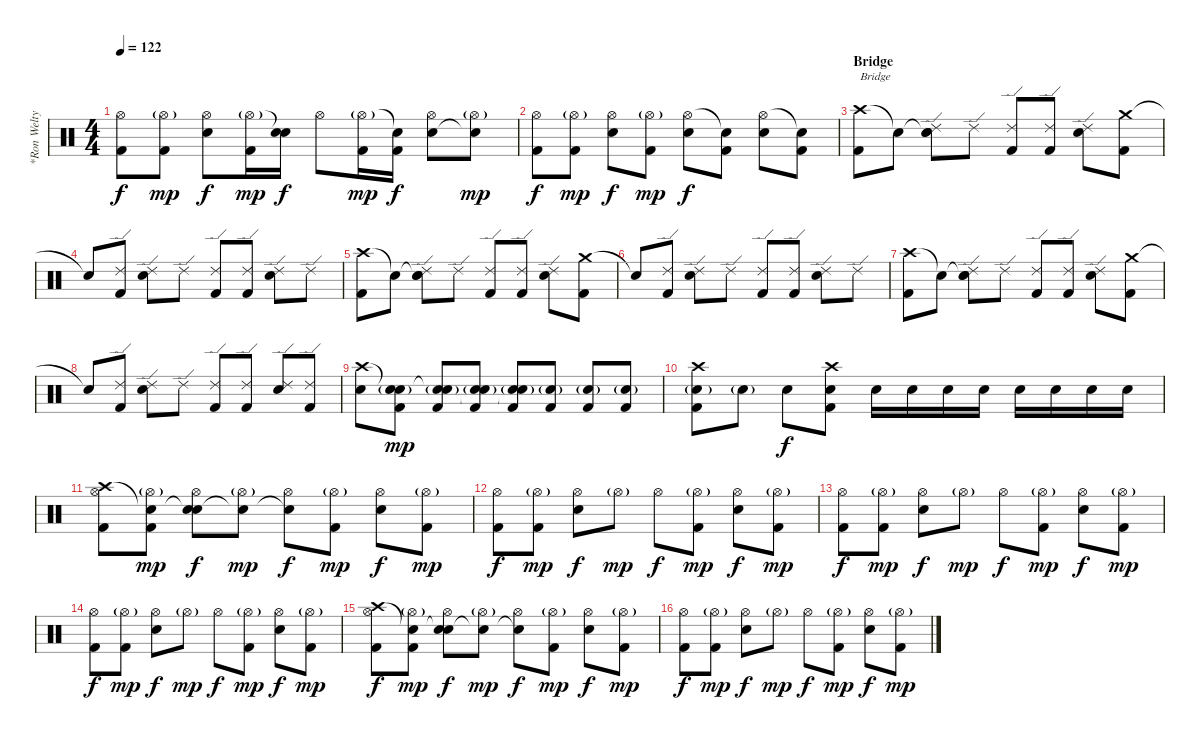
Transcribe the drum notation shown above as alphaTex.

\track ("*Ron Welty (Ex-drummer)" "*Ron Welty") {instrument percussion}
\staff {score}
\articulation defaults
\ts (4 4)
\tempo 122
\clef neutral
\ks c
("Hi-Hat (open)" "Kick (hit) 2").8{dy f volume 12} ("Hi-Hat (open)"{g} "Kick (hit) 2").8{dy mp} ("Hi-Hat (open)" "Electric Snare (hit)").8{dy f} ("Hi-Hat (open)"{g} "Kick (hit) 2").16{dy mp} ("Snare (hit)"{t} "Electric Snare (hit)").16{dy f} "Hi-Hat (open)".8 ("Hi-Hat (open)"{g} "Kick (hit) 2").16{dy mp} ("Snare (hit)"{t} "Kick (hit) 2").16{dy f} ("Hi-Hat (open)" "Electric Snare (hit)").8 ("Hi-Hat (open)"{g} "Snare (hit)"{t}).8{dy mp} |
("Hi-Hat (open)" "Kick (hit) 2").8{dy f volume 12} ("Hi-Hat (open)"{g} "Kick (hit) 2").8{dy mp} ("Hi-Hat (open)" "Electric Snare (hit)").8{dy f} ("Hi-Hat (open)"{g} "Kick (hit) 2").8{dy mp} ("Hi-Hat (open)" "Electric Snare (hit)").8{dy f} ("Snare (hit)"{t} "Kick (hit) 2").8 ("Hi-Hat (open)" "Electric Snare (hit)").8 ("Snare (hit)"{t} "Kick (hit) 2").8 |
\section ("" "Bridge")
("Crash high (hit)" "Kick (hit) 2").8{txt "Bridge" volume 10} "Snare (hit)"{t}.8 ("Snare (hit)"{t} "Ride (edge) 2" "Electric Snare (hit)").8 "Ride (edge) 2".8 ("Ride (edge) 2" "Kick (hit) 2").8 ("Ride (edge) 2" "Kick (hit) 2").8 ("Ride (edge) 2" "Electric Snare (hit)").8 ("Crash medium (hit)" "Kick (hit) 2").8 |
"Snare (hit)"{t}.8 ("Ride (edge) 2" "Kick (hit) 2").8 ("Ride (edge) 2" "Electric Snare (hit)").8 "Ride (edge) 2".8 ("Ride (edge) 2" "Kick (hit) 2").8 ("Ride (edge) 2" "Kick (hit) 2").8 ("Ride (edge) 2" "Electric Snare (hit)").8 "Ride (edge) 2".8 |
("Crash high (hit)" "Kick (hit) 2").8 "Snare (hit)"{t}.8 ("Snare (hit)"{t} "Ride (edge) 2" "Electric Snare (hit)").8 "Ride (edge) 2".8 ("Ride (edge) 2" "Kick (hit) 2").8 ("Ride (edge) 2" "Kick (hit) 2").8 ("Ride (edge) 2" "Electric Snare (hit)").8 ("Crash medium (hit)" "Kick (hit) 2").8 |
"Snare (hit)"{t}.8 ("Ride (edge) 2" "Kick (hit) 2").8 ("Ride (edge) 2" "Electric Snare (hit)").8 "Ride (edge) 2".8 ("Ride (edge) 2" "Kick (hit) 2").8 ("Ride (edge) 2" "Kick (hit) 2").8 ("Ride (edge) 2" "Electric Snare (hit)").8 "Ride (edge) 2".8 |
("Crash high (hit)" "Kick (hit) 2").8 "Snare (hit)"{t}.8 ("Snare (hit)"{t} "Ride (edge) 2" "Electric Snare (hit)").8 "Ride (edge) 2".8 ("Ride (edge) 2" "Kick (hit) 2").8 ("Ride (edge) 2" "Kick (hit) 2").8 ("Ride (edge) 2" "Electric Snare (hit)").8 ("Crash medium (hit)" "Kick (hit) 2").8 |
"Snare (hit)"{t}.8 ("Ride (edge) 2" "Kick (hit) 2").8 ("Ride (edge) 2" "Electric Snare (hit)").8 "Ride (edge) 2".8 ("Ride (edge) 2" "Kick (hit) 2").8 ("Ride (edge) 2" "Kick (hit) 2").8 ("Ride (edge) 2" "Electric Snare (hit)").8 ("Ride (edge) 2" "Kick (hit) 2").8 |
("Crash high (hit)" "Electric Snare (hit)").8 ("Snare (hit)"{t} "Electric Snare (hit)"{g} "Kick (hit) 2").8{dy mp} ("Snare (hit)"{t} "Electric Snare (hit)"{g} "Kick (hit) 2").8 ("Snare (hit)"{t} "Electric Snare (hit)"{g} "Kick (hit) 2").8 ("Snare (hit)"{t} "Electric Snare (hit)"{g} "Kick (hit) 2").8 ("Electric Snare (hit)"{g} "Kick (hit) 2").8 ("Electric Snare (hit)"{g} "Kick (hit) 2").8 ("Electric Snare (hit)"{g} "Kick (hit) 2").8 |
("Crash high (hit)" "Electric Snare (hit)"{g} "Kick (hit) 2").8 "Electric Snare (hit)"{g}.8 "Electric Snare (hit)".8{dy f} ("Crash high (hit)" "Electric Snare (hit)" "Kick (hit) 2").8 "Electric Snare (hit)".16 "Electric Snare (hit)".16 "Electric Snare (hit)".16 "Electric Snare (hit)".16 "Electric Snare (hit)".16 "Electric Snare (hit)".16 "Electric Snare (hit)".16 "Electric Snare (hit)".16 |
("Crash high (hit)" "Hi-Hat (open)" "Kick (hit) 2").8 ("Snare (hit)"{t} "Hi-Hat (open)"{g} "Kick (hit) 2").8{dy mp} ("Snare (hit)"{t} "Hi-Hat (open)" "Electric Snare (hit)").8{dy f} ("Snare (hit)"{t} "Hi-Hat (open)"{g}).8{dy mp} ("Snare (hit)"{t} "Hi-Hat (open)").8{dy f} ("Hi-Hat (open)"{g} "Kick (hit) 2").8{dy mp} ("Hi-Hat (open)" "Electric Snare (hit)").8{dy f} ("Hi-Hat (open)"{g} "Kick (hit) 2").8{dy mp} |
("Hi-Hat (open)" "Kick (hit) 2").8{dy f} ("Hi-Hat (open)"{g} "Kick (hit) 2").8{dy mp} ("Hi-Hat (open)" "Electric Snare (hit)").8{dy f} "Hi-Hat (open)"{g}.8{dy mp} "Hi-Hat (open)".8{dy f} ("Hi-Hat (open)"{g} "Kick (hit) 2").8{dy mp} ("Hi-Hat (open)" "Electric Snare (hit)").8{dy f} ("Hi-Hat (open)"{g} "Kick (hit) 2").8{dy mp} |
("Hi-Hat (open)" "Kick (hit) 2").8{dy f} ("Hi-Hat (open)"{g} "Kick (hit) 2").8{dy mp} ("Hi-Hat (open)" "Electric Snare (hit)").8{dy f} "Hi-Hat (open)"{g}.8{dy mp} "Hi-Hat (open)".8{dy f} ("Hi-Hat (open)"{g} "Kick (hit) 2").8{dy mp} ("Hi-Hat (open)" "Electric Snare (hit)").8{dy f} ("Hi-Hat (open)"{g} "Kick (hit) 2").8{dy mp} |
("Hi-Hat (open)" "Kick (hit) 2").8{dy f} ("Hi-Hat (open)"{g} "Kick (hit) 2").8{dy mp} ("Hi-Hat (open)" "Electric Snare (hit)").8{dy f} "Hi-Hat (open)"{g}.8{dy mp} "Hi-Hat (open)".8{dy f} ("Hi-Hat (open)"{g} "Kick (hit) 2").8{dy mp} ("Hi-Hat (open)" "Electric Snare (hit)").8{dy f} ("Hi-Hat (open)"{g} "Kick (hit) 2").8{dy mp} |
("Crash high (hit)" "Hi-Hat (open)" "Kick (hit) 2").8{dy f} ("Snare (hit)"{t} "Hi-Hat (open)"{g} "Kick (hit) 2").8{dy mp} ("Snare (hit)"{t} "Hi-Hat (open)" "Electric Snare (hit)").8{dy f} ("Snare (hit)"{t} "Hi-Hat (open)"{g}).8{dy mp} ("Snare (hit)"{t} "Hi-Hat (open)").8{dy f} ("Hi-Hat (open)"{g} "Kick (hit) 2").8{dy mp} ("Hi-Hat (open)" "Electric Snare (hit)").8{dy f} ("Hi-Hat (open)"{g} "Kick (hit) 2").8{dy mp} |
("Hi-Hat (open)" "Kick (hit) 2").8{dy f} ("Hi-Hat (open)"{g} "Kick (hit) 2").8{dy mp} ("Hi-Hat (open)" "Electric Snare (hit)").8{dy f} "Hi-Hat (open)"{g}.8{dy mp} "Hi-Hat (open)".8{dy f} ("Hi-Hat (open)"{g} "Kick (hit) 2").8{dy mp} ("Hi-Hat (open)" "Electric Snare (hit)").8{dy f} ("Hi-Hat (open)"{g} "Kick (hit) 2").8{dy mp}
